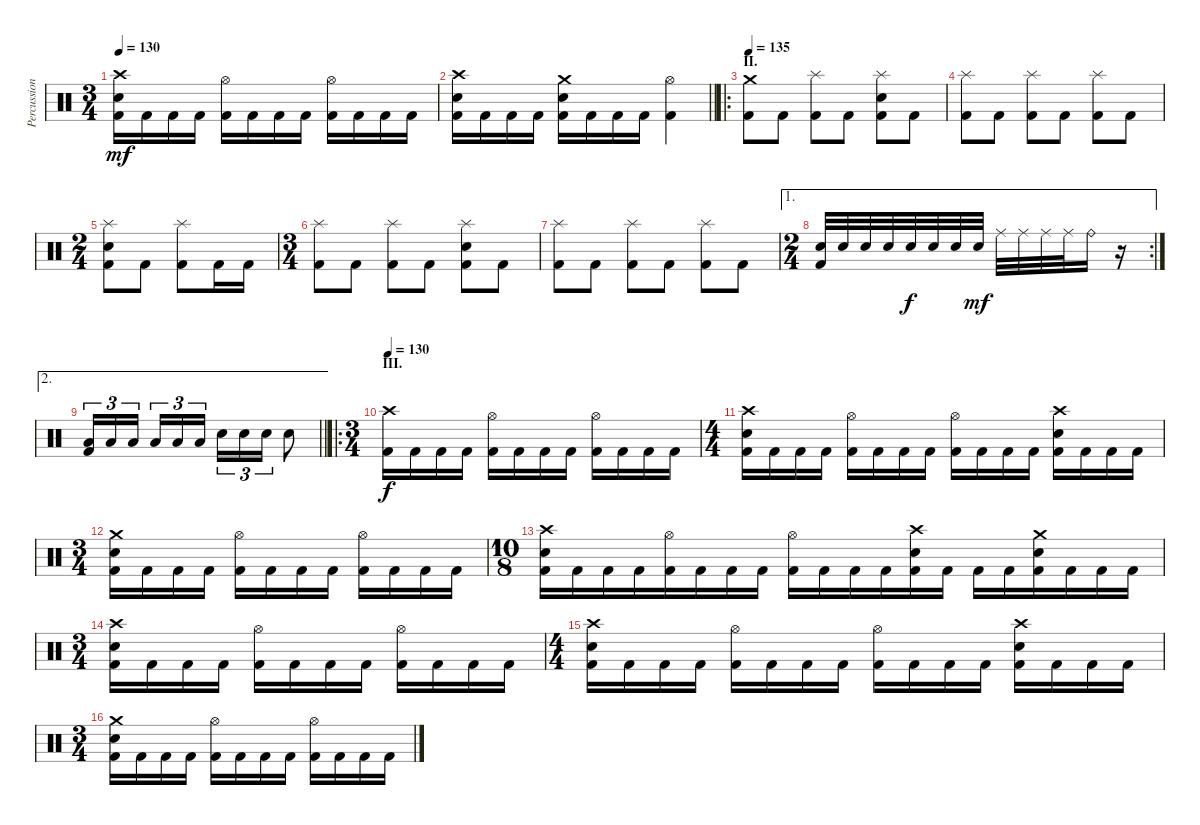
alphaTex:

\track ("Percussion" "Percussion") {instrument percussion}
\staff {score}
\articulation defaults
\ts (3 4)
\tempo 130
\clef neutral
\ks c
("Crash high (hit)" "Electric Snare (hit)" "Kick (hit) 2").16{dy mf} "Kick (hit) 2".16 "Kick (hit) 2".16 "Kick (hit) 2".16 ("Hi-Hat (open)" "Kick (hit) 2").16 "Kick (hit) 2".16 "Kick (hit) 2".16 "Kick (hit) 2".16 ("Hi-Hat (open)" "Kick (hit) 2").16 "Kick (hit) 2".16 "Kick (hit) 2".16 "Kick (hit) 2".16 |
\barLineRight lightlight
("Crash high (hit)" "Electric Snare (hit)" "Kick (hit) 2").16 "Kick (hit) 2".16 "Kick (hit) 2".16 "Kick (hit) 2".16 ("Crash medium (hit)" "Electric Snare (hit)" "Kick (hit) 2").16 "Kick (hit) 2".16 "Kick (hit) 2".16 "Kick (hit) 2".16 ("Hi-Hat (open)" "Kick (hit) 2").4 |
\ro
\section ("" "II.")
\tempo 135
("Crash medium (hit)" "Kick (hit) 2").8 "Kick (hit) 2".8 ("Splash (hit)" "Kick (hit) 2").8 "Kick (hit) 2".8 ("Splash (hit)" "Electric Snare (hit)" "Kick (hit) 2").8 "Kick (hit) 2".8 |
("Splash (hit)" "Kick (hit) 2").8 "Kick (hit) 2".8 ("Splash (hit)" "Kick (hit) 2").8 "Kick (hit) 2".8 ("Splash (hit)" "Kick (hit) 2").8 "Kick (hit) 2".8 |
\ts (2 4)
("Splash (hit)" "Electric Snare (hit)" "Kick (hit) 2").8 "Kick (hit) 2".8 ("Splash (hit)" "Kick (hit) 2").8 "Kick (hit) 2".16 "Kick (hit) 2".16 |
\ts (3 4)
("Splash (hit)" "Kick (hit) 2").8 "Kick (hit) 2".8 ("Splash (hit)" "Kick (hit) 2").8 "Kick (hit) 2".8 ("Splash (hit)" "Electric Snare (hit)" "Kick (hit) 2").8 "Kick (hit) 2".8 |
("Splash (hit)" "Kick (hit) 2").8 "Kick (hit) 2".8 ("Splash (hit)" "Kick (hit) 2").8 "Kick (hit) 2".8 ("Splash (hit)" "Kick (hit) 2").8 "Kick (hit) 2".8 |
\ae 1
\rc 2
\ts (2 4)
("Electric Snare (hit)" "Kick (hit) 2").32 "Electric Snare (hit)".32 "Electric Snare (hit)".32 "Electric Snare (hit)".32 "Electric Snare (hit)".32{dy f} "Electric Snare (hit)".32 "Electric Snare (hit)".32 "Electric Snare (hit)".32{dy mf} "Ride (middle)".32 "Ride (middle)".32 "Ride (middle)".32 "Ride (middle)".32 "Ride (bell)".16 r.16 |
\ae 2
\barLineRight lightlight
("Low Tom (hit)" "Kick (hit) 2").16{tu (3 2)} "Low Tom (hit)".16{tu (3 2)} "Low Tom (hit)".16{tu (3 2) beam splitsecondary} "Low Floor Tom (hit)".16{tu (3 2)} "Low Floor Tom (hit)".16{tu (3 2)} "Low Floor Tom (hit)".16{tu (3 2)} "Electric Snare (hit)".16{tu (3 2)} "Electric Snare (hit)".16{tu (3 2)} "Electric Snare (hit)".16{tu (3 2)} "Electric Snare (hit)".8 |
\ro
\ts (3 4)
\section ("" "III.")
\tempo 130
("Crash high (hit)" "Kick (hit) 2").16{dy f} "Kick (hit) 2".16 "Kick (hit) 2".16 "Kick (hit) 2".16 ("Hi-Hat (open)" "Kick (hit) 2").16 "Kick (hit) 2".16 "Kick (hit) 2".16 "Kick (hit) 2".16 ("Hi-Hat (open)" "Kick (hit) 2").16 "Kick (hit) 2".16 "Kick (hit) 2".16 "Kick (hit) 2".16 |
\ts (4 4)
("Crash high (hit)" "Electric Snare (hit)" "Kick (hit) 2").16 "Kick (hit) 2".16 "Kick (hit) 2".16 "Kick (hit) 2".16 ("Hi-Hat (open)" "Kick (hit) 2").16 "Kick (hit) 2".16 "Kick (hit) 2".16 "Kick (hit) 2".16 ("Hi-Hat (open)" "Kick (hit) 2").16 "Kick (hit) 2".16 "Kick (hit) 2".16 "Kick (hit) 2".16 ("Crash high (hit)" "Electric Snare (hit)" "Kick (hit) 2").16 "Kick (hit) 2".16 "Kick (hit) 2".16 "Kick (hit) 2".16 |
\ts (3 4)
("Crash medium (hit)" "Electric Snare (hit)" "Kick (hit) 2").16 "Kick (hit) 2".16 "Kick (hit) 2".16 "Kick (hit) 2".16 ("Hi-Hat (open)" "Kick (hit) 2").16 "Kick (hit) 2".16 "Kick (hit) 2".16 "Kick (hit) 2".16 ("Hi-Hat (open)" "Kick (hit) 2").16 "Kick (hit) 2".16 "Kick (hit) 2".16 "Kick (hit) 2".16 |
\ts (10 8)
("Crash high (hit)" "Electric Snare (hit)" "Kick (hit) 2").16 "Kick (hit) 2".16 "Kick (hit) 2".16 "Kick (hit) 2".16 ("Hi-Hat (open)" "Kick (hit) 2").16 "Kick (hit) 2".16 "Kick (hit) 2".16 "Kick (hit) 2".16 ("Hi-Hat (open)" "Kick (hit) 2").16 "Kick (hit) 2".16 "Kick (hit) 2".16 "Kick (hit) 2".16 ("Crash high (hit)" "Electric Snare (hit)" "Kick (hit) 2").16 "Kick (hit) 2".16 "Kick (hit) 2".16 "Kick (hit) 2".16 ("Crash medium (hit)" "Electric Snare (hit)" "Kick (hit) 2").16 "Kick (hit) 2".16 "Kick (hit) 2".16 "Kick (hit) 2".16 |
\ts (3 4)
("Crash high (hit)" "Electric Snare (hit)" "Kick (hit) 2").16 "Kick (hit) 2".16 "Kick (hit) 2".16 "Kick (hit) 2".16 ("Hi-Hat (open)" "Kick (hit) 2").16 "Kick (hit) 2".16 "Kick (hit) 2".16 "Kick (hit) 2".16 ("Hi-Hat (open)" "Kick (hit) 2").16 "Kick (hit) 2".16 "Kick (hit) 2".16 "Kick (hit) 2".16 |
\ts (4 4)
("Crash high (hit)" "Electric Snare (hit)" "Kick (hit) 2").16 "Kick (hit) 2".16 "Kick (hit) 2".16 "Kick (hit) 2".16 ("Hi-Hat (open)" "Kick (hit) 2").16 "Kick (hit) 2".16 "Kick (hit) 2".16 "Kick (hit) 2".16 ("Hi-Hat (open)" "Kick (hit) 2").16 "Kick (hit) 2".16 "Kick (hit) 2".16 "Kick (hit) 2".16 ("Crash high (hit)" "Electric Snare (hit)" "Kick (hit) 2").16 "Kick (hit) 2".16 "Kick (hit) 2".16 "Kick (hit) 2".16 |
\ts (3 4)
("Crash medium (hit)" "Electric Snare (hit)" "Kick (hit) 2").16 "Kick (hit) 2".16 "Kick (hit) 2".16 "Kick (hit) 2".16 ("Hi-Hat (open)" "Kick (hit) 2").16 "Kick (hit) 2".16 "Kick (hit) 2".16 "Kick (hit) 2".16 ("Hi-Hat (open)" "Kick (hit) 2").16 "Kick (hit) 2".16 "Kick (hit) 2".16 "Kick (hit) 2".16
